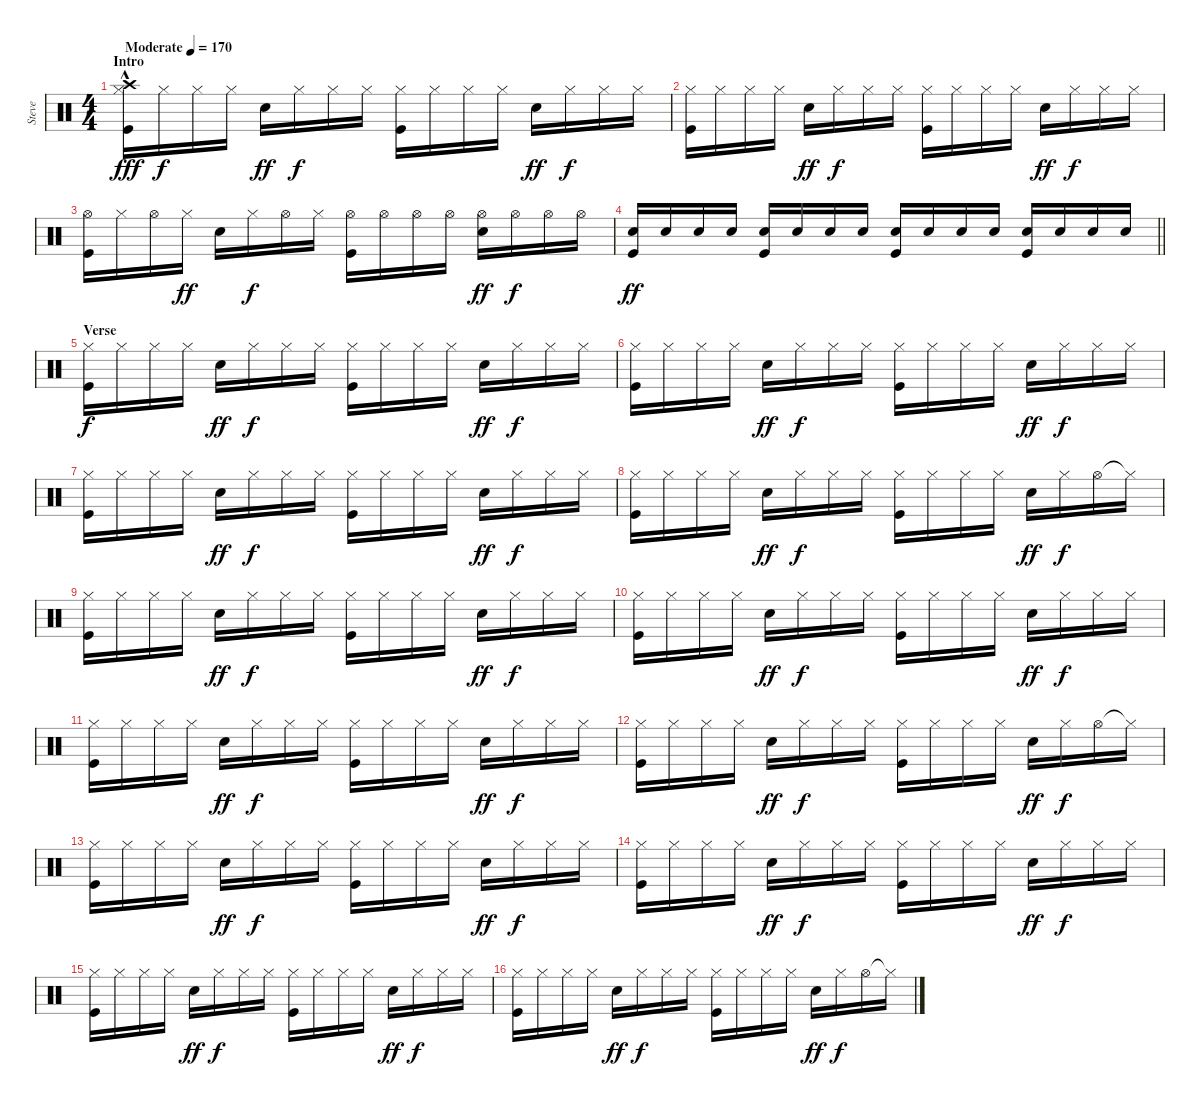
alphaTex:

\track ("Steve" "Steve") {instrument percussion}
\staff {score}
\articulation defaults
\ts (4 4)
\section ("" "Intro")
\tempo (170 "Moderate")
\clef neutral
\ks c
("Hi-Hat (closed)" "Crash high (hit)"{hac} "Kick (hit)").16{dy fff} "Hi-Hat (closed)".16{dy f} "Hi-Hat (closed)".16 "Hi-Hat (closed)".16 "Electric Snare (hit)".16{dy ff} "Hi-Hat (closed)".16{dy f} "Hi-Hat (closed)".16 "Hi-Hat (closed)".16 ("Hi-Hat (closed)" "Kick (hit)").16 "Hi-Hat (closed)".16 "Hi-Hat (closed)".16 "Hi-Hat (closed)".16 "Electric Snare (hit)".16{dy ff} "Hi-Hat (closed)".16{dy f} "Hi-Hat (closed)".16 "Hi-Hat (closed)".16 |
("Hi-Hat (closed)" "Kick (hit)").16 "Hi-Hat (closed)".16 "Hi-Hat (closed)".16 "Hi-Hat (closed)".16 "Electric Snare (hit)".16{dy ff} "Hi-Hat (closed)".16{dy f} "Hi-Hat (closed)".16 "Hi-Hat (closed)".16 ("Hi-Hat (closed)" "Kick (hit)").16 "Hi-Hat (closed)".16 "Hi-Hat (closed)".16 "Hi-Hat (closed)".16 "Electric Snare (hit)".16{dy ff} "Hi-Hat (closed)".16{dy f} "Hi-Hat (closed)".16 "Hi-Hat (closed)".16 |
("Hi-Hat (open)" "Kick (hit)").16 "Hi-Hat (closed)".16 "Hi-Hat (open)".16 "Hi-Hat (closed)".16{dy ff} "Electric Snare (hit)".16 "Hi-Hat (closed)".16{dy f} "Hi-Hat (open)".16 "Hi-Hat (closed)".16 ("Hi-Hat (open)" "Kick (hit)").16 "Hi-Hat (open)".16 "Hi-Hat (open)".16 "Hi-Hat (open)".16 ("Hi-Hat (open)" "Electric Snare (hit)").16{dy ff} "Hi-Hat (open)".16{dy f} "Hi-Hat (open)".16 "Hi-Hat (open)".16 |
\barLineRight lightlight
("Electric Snare (hit)" "Kick (hit)").16{dy ff} "Electric Snare (hit)".16 "Electric Snare (hit)".16 "Electric Snare (hit)".16 ("Electric Snare (hit)" "Kick (hit)").16 "Electric Snare (hit)".16 "Electric Snare (hit)".16 "Electric Snare (hit)".16 ("Electric Snare (hit)" "Kick (hit)").16 "Electric Snare (hit)".16 "Electric Snare (hit)".16 "Electric Snare (hit)".16 ("Electric Snare (hit)" "Kick (hit)").16 "Electric Snare (hit)".16 "Electric Snare (hit)".16 "Electric Snare (hit)".16 |
\section ("" "Verse")
("Hi-Hat (closed)" "Kick (hit)").16{dy f} "Hi-Hat (closed)".16 "Hi-Hat (closed)".16 "Hi-Hat (closed)".16 "Electric Snare (hit)".16{dy ff} "Hi-Hat (closed)".16{dy f} "Hi-Hat (closed)".16 "Hi-Hat (closed)".16 ("Hi-Hat (closed)" "Kick (hit)").16 "Hi-Hat (closed)".16 "Hi-Hat (closed)".16 "Hi-Hat (closed)".16 "Electric Snare (hit)".16{dy ff} "Hi-Hat (closed)".16{dy f} "Hi-Hat (closed)".16 "Hi-Hat (closed)".16 |
("Hi-Hat (closed)" "Kick (hit)").16 "Hi-Hat (closed)".16 "Hi-Hat (closed)".16 "Hi-Hat (closed)".16 "Electric Snare (hit)".16{dy ff} "Hi-Hat (closed)".16{dy f} "Hi-Hat (closed)".16 "Hi-Hat (closed)".16 ("Hi-Hat (closed)" "Kick (hit)").16 "Hi-Hat (closed)".16 "Hi-Hat (closed)".16 "Hi-Hat (closed)".16 "Electric Snare (hit)".16{dy ff} "Hi-Hat (closed)".16{dy f} "Hi-Hat (closed)".16 "Hi-Hat (closed)".16 |
("Hi-Hat (closed)" "Kick (hit)").16 "Hi-Hat (closed)".16 "Hi-Hat (closed)".16 "Hi-Hat (closed)".16 "Electric Snare (hit)".16{dy ff} "Hi-Hat (closed)".16{dy f} "Hi-Hat (closed)".16 "Hi-Hat (closed)".16 ("Hi-Hat (closed)" "Kick (hit)").16 "Hi-Hat (closed)".16 "Hi-Hat (closed)".16 "Hi-Hat (closed)".16 "Electric Snare (hit)".16{dy ff} "Hi-Hat (closed)".16{dy f} "Hi-Hat (closed)".16 "Hi-Hat (closed)".16 |
("Hi-Hat (closed)" "Kick (hit)").16 "Hi-Hat (closed)".16 "Hi-Hat (closed)".16 "Hi-Hat (closed)".16 "Electric Snare (hit)".16{dy ff} "Hi-Hat (closed)".16{dy f} "Hi-Hat (closed)".16 "Hi-Hat (closed)".16 ("Hi-Hat (closed)" "Kick (hit)").16 "Hi-Hat (closed)".16 "Hi-Hat (closed)".16 "Hi-Hat (closed)".16 "Electric Snare (hit)".16{dy ff} "Hi-Hat (closed)".16{dy f} "Hi-Hat (open)".16 "Hi-Hat (closed)"{t}.16 |
("Hi-Hat (closed)" "Kick (hit)").16 "Hi-Hat (closed)".16 "Hi-Hat (closed)".16 "Hi-Hat (closed)".16 "Electric Snare (hit)".16{dy ff} "Hi-Hat (closed)".16{dy f} "Hi-Hat (closed)".16 "Hi-Hat (closed)".16 ("Hi-Hat (closed)" "Kick (hit)").16 "Hi-Hat (closed)".16 "Hi-Hat (closed)".16 "Hi-Hat (closed)".16 "Electric Snare (hit)".16{dy ff} "Hi-Hat (closed)".16{dy f} "Hi-Hat (closed)".16 "Hi-Hat (closed)".16 |
("Hi-Hat (closed)" "Kick (hit)").16 "Hi-Hat (closed)".16 "Hi-Hat (closed)".16 "Hi-Hat (closed)".16 "Electric Snare (hit)".16{dy ff} "Hi-Hat (closed)".16{dy f} "Hi-Hat (closed)".16 "Hi-Hat (closed)".16 ("Hi-Hat (closed)" "Kick (hit)").16 "Hi-Hat (closed)".16 "Hi-Hat (closed)".16 "Hi-Hat (closed)".16 "Electric Snare (hit)".16{dy ff} "Hi-Hat (closed)".16{dy f} "Hi-Hat (closed)".16 "Hi-Hat (closed)".16 |
("Hi-Hat (closed)" "Kick (hit)").16 "Hi-Hat (closed)".16 "Hi-Hat (closed)".16 "Hi-Hat (closed)".16 "Electric Snare (hit)".16{dy ff} "Hi-Hat (closed)".16{dy f} "Hi-Hat (closed)".16 "Hi-Hat (closed)".16 ("Hi-Hat (closed)" "Kick (hit)").16 "Hi-Hat (closed)".16 "Hi-Hat (closed)".16 "Hi-Hat (closed)".16 "Electric Snare (hit)".16{dy ff} "Hi-Hat (closed)".16{dy f} "Hi-Hat (closed)".16 "Hi-Hat (closed)".16 |
("Hi-Hat (closed)" "Kick (hit)").16 "Hi-Hat (closed)".16 "Hi-Hat (closed)".16 "Hi-Hat (closed)".16 "Electric Snare (hit)".16{dy ff} "Hi-Hat (closed)".16{dy f} "Hi-Hat (closed)".16 "Hi-Hat (closed)".16 ("Hi-Hat (closed)" "Kick (hit)").16 "Hi-Hat (closed)".16 "Hi-Hat (closed)".16 "Hi-Hat (closed)".16 "Electric Snare (hit)".16{dy ff} "Hi-Hat (closed)".16{dy f} "Hi-Hat (open)".16 "Hi-Hat (closed)"{t}.16 |
("Hi-Hat (closed)" "Kick (hit)").16 "Hi-Hat (closed)".16 "Hi-Hat (closed)".16 "Hi-Hat (closed)".16 "Electric Snare (hit)".16{dy ff} "Hi-Hat (closed)".16{dy f} "Hi-Hat (closed)".16 "Hi-Hat (closed)".16 ("Hi-Hat (closed)" "Kick (hit)").16 "Hi-Hat (closed)".16 "Hi-Hat (closed)".16 "Hi-Hat (closed)".16 "Electric Snare (hit)".16{dy ff} "Hi-Hat (closed)".16{dy f} "Hi-Hat (closed)".16 "Hi-Hat (closed)".16 |
("Hi-Hat (closed)" "Kick (hit)").16 "Hi-Hat (closed)".16 "Hi-Hat (closed)".16 "Hi-Hat (closed)".16 "Electric Snare (hit)".16{dy ff} "Hi-Hat (closed)".16{dy f} "Hi-Hat (closed)".16 "Hi-Hat (closed)".16 ("Hi-Hat (closed)" "Kick (hit)").16 "Hi-Hat (closed)".16 "Hi-Hat (closed)".16 "Hi-Hat (closed)".16 "Electric Snare (hit)".16{dy ff} "Hi-Hat (closed)".16{dy f} "Hi-Hat (closed)".16 "Hi-Hat (closed)".16 |
("Hi-Hat (closed)" "Kick (hit)").16 "Hi-Hat (closed)".16 "Hi-Hat (closed)".16 "Hi-Hat (closed)".16 "Electric Snare (hit)".16{dy ff} "Hi-Hat (closed)".16{dy f} "Hi-Hat (closed)".16 "Hi-Hat (closed)".16 ("Hi-Hat (closed)" "Kick (hit)").16 "Hi-Hat (closed)".16 "Hi-Hat (closed)".16 "Hi-Hat (closed)".16 "Electric Snare (hit)".16{dy ff} "Hi-Hat (closed)".16{dy f} "Hi-Hat (closed)".16 "Hi-Hat (closed)".16 |
("Hi-Hat (closed)" "Kick (hit)").16 "Hi-Hat (closed)".16 "Hi-Hat (closed)".16 "Hi-Hat (closed)".16 "Electric Snare (hit)".16{dy ff} "Hi-Hat (closed)".16{dy f} "Hi-Hat (closed)".16 "Hi-Hat (closed)".16 ("Hi-Hat (closed)" "Kick (hit)").16 "Hi-Hat (closed)".16 "Hi-Hat (closed)".16 "Hi-Hat (closed)".16 "Electric Snare (hit)".16{dy ff} "Hi-Hat (closed)".16{dy f} "Hi-Hat (open)".16 "Hi-Hat (closed)"{t}.16
